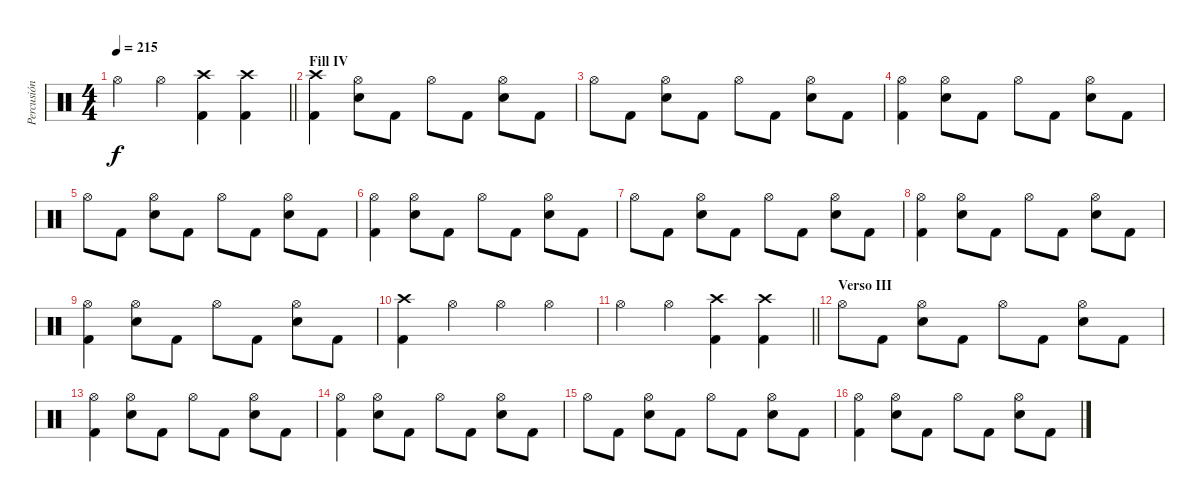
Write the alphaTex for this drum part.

\track ("Percusión" "Percusión") {instrument percussion}
\staff {score}
\articulation defaults
\ts (4 4)
\tempo 215
\clef neutral
\barLineRight lightlight
\ks c "Hi-Hat (open)".4{dy f} "Hi-Hat (open)".4
("Crash high (hit)" "Kick (hit) 2").4 ("Crash high (hit)" "Kick (hit) 2").4 |
\section ("" "Fill IV")
("Crash high (hit)" "Kick (hit) 2").4 ("Hi-Hat (open)" "Electric Snare (hit)").8 "Kick (hit) 2".8 "Hi-Hat (open)".8 "Kick (hit) 2".8 ("Hi-Hat (open)" "Electric Snare (hit)").8 "Kick (hit) 2".8 |
"Hi-Hat (open)".8 "Kick (hit) 2".8 ("Hi-Hat (open)" "Electric Snare (hit)").8 "Kick (hit) 2".8 "Hi-Hat (open)".8 "Kick (hit) 2".8 ("Hi-Hat (open)" "Electric Snare (hit)").8 "Kick (hit) 2".8 |
("Hi-Hat (open)" "Kick (hit) 2").4 ("Hi-Hat (open)" "Electric Snare (hit)").8 "Kick (hit) 2".8 "Hi-Hat (open)".8 "Kick (hit) 2".8 ("Hi-Hat (open)" "Electric Snare (hit)").8 "Kick (hit) 2".8 |
"Hi-Hat (open)".8 "Kick (hit) 2".8 ("Hi-Hat (open)" "Electric Snare (hit)").8 "Kick (hit) 2".8 "Hi-Hat (open)".8 "Kick (hit) 2".8 ("Hi-Hat (open)" "Electric Snare (hit)").8 "Kick (hit) 2".8 |
("Hi-Hat (open)" "Kick (hit) 2").4 ("Hi-Hat (open)" "Electric Snare (hit)").8 "Kick (hit) 2".8 "Hi-Hat (open)".8 "Kick (hit) 2".8 ("Hi-Hat (open)" "Electric Snare (hit)").8 "Kick (hit) 2".8 |
"Hi-Hat (open)".8 "Kick (hit) 2".8 ("Hi-Hat (open)" "Electric Snare (hit)").8 "Kick (hit) 2".8 "Hi-Hat (open)".8 "Kick (hit) 2".8 ("Hi-Hat (open)" "Electric Snare (hit)").8 "Kick (hit) 2".8 |
("Hi-Hat (open)" "Kick (hit) 2").4 ("Hi-Hat (open)" "Electric Snare (hit)").8 "Kick (hit) 2".8 "Hi-Hat (open)".8 "Kick (hit) 2".8 ("Hi-Hat (open)" "Electric Snare (hit)").8 "Kick (hit) 2".8 |
("Hi-Hat (open)" "Kick (hit) 2").4 ("Hi-Hat (open)" "Electric Snare (hit)").8 "Kick (hit) 2".8 "Hi-Hat (open)".8 "Kick (hit) 2".8 ("Hi-Hat (open)" "Electric Snare (hit)").8 "Kick (hit) 2".8 |
("Crash high (hit)" "Kick (hit) 2").4 "Hi-Hat (open)".4 "Hi-Hat (open)".4 "Hi-Hat (open)".4 |
\barLineRight lightlight "Hi-Hat (open)".4 "Hi-Hat (open)".4
("Crash high (hit)" "Kick (hit) 2").4 ("Crash high (hit)" "Kick (hit) 2").4 |
\section ("" "Verso III")
"Hi-Hat (open)".8 "Kick (hit) 2".8 ("Hi-Hat (open)" "Electric Snare (hit)").8 "Kick (hit) 2".8 "Hi-Hat (open)".8 "Kick (hit) 2".8 ("Hi-Hat (open)" "Electric Snare (hit)").8 "Kick (hit) 2".8 |
("Hi-Hat (open)" "Kick (hit) 2").4 ("Hi-Hat (open)" "Electric Snare (hit)").8 "Kick (hit) 2".8 "Hi-Hat (open)".8 "Kick (hit) 2".8 ("Hi-Hat (open)" "Electric Snare (hit)").8 "Kick (hit) 2".8 |
("Hi-Hat (open)" "Kick (hit) 2").4 ("Hi-Hat (open)" "Electric Snare (hit)").8 "Kick (hit) 2".8 "Hi-Hat (open)".8 "Kick (hit) 2".8 ("Hi-Hat (open)" "Electric Snare (hit)").8 "Kick (hit) 2".8 |
"Hi-Hat (open)".8 "Kick (hit) 2".8 ("Hi-Hat (open)" "Electric Snare (hit)").8 "Kick (hit) 2".8 "Hi-Hat (open)".8 "Kick (hit) 2".8 ("Hi-Hat (open)" "Electric Snare (hit)").8 "Kick (hit) 2".8 |
("Hi-Hat (open)" "Kick (hit) 2").4 ("Hi-Hat (open)" "Electric Snare (hit)").8 "Kick (hit) 2".8 "Hi-Hat (open)".8 "Kick (hit) 2".8 ("Hi-Hat (open)" "Electric Snare (hit)").8 "Kick (hit) 2".8
